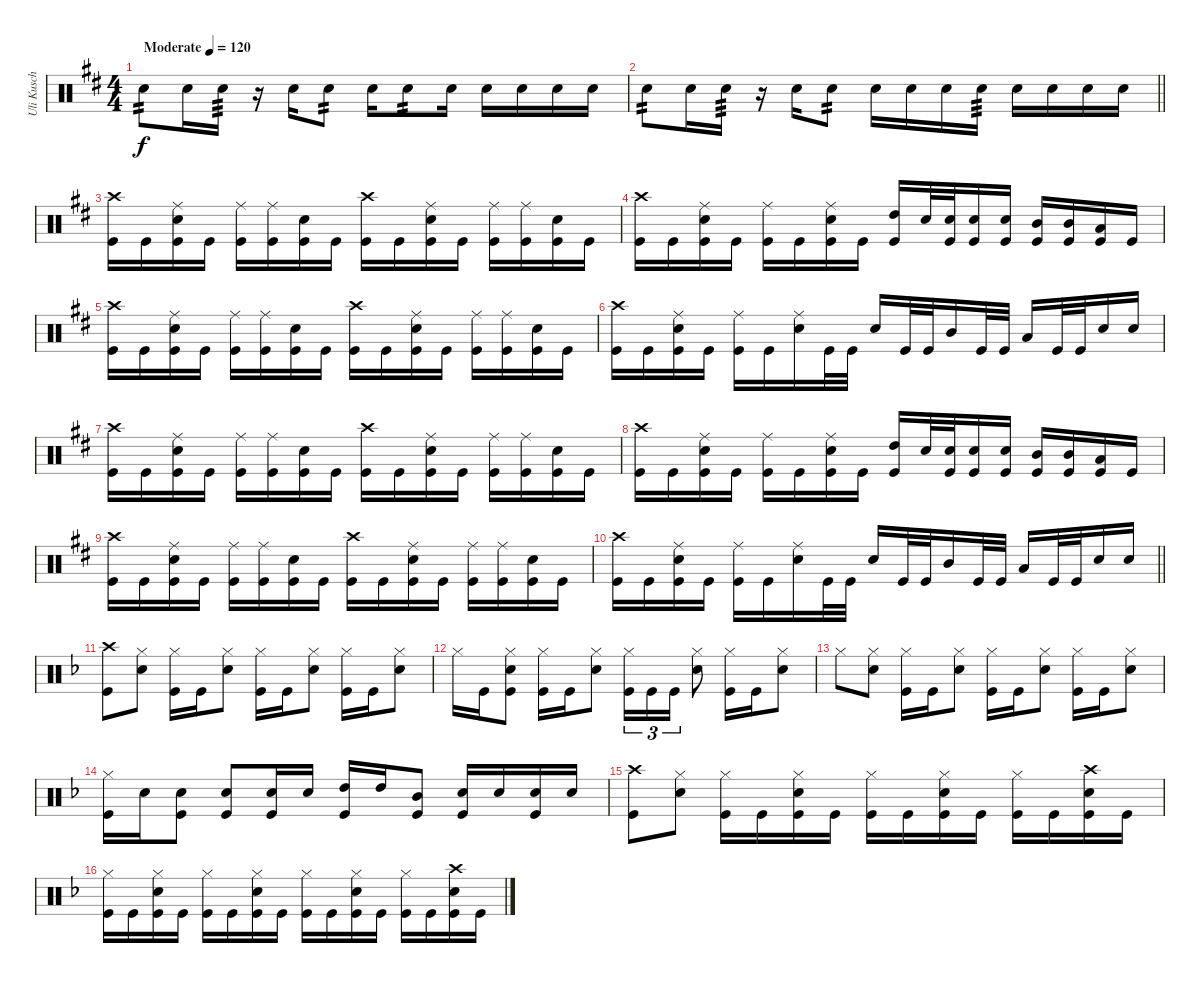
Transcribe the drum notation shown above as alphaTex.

\track ("Uli Kusch" "Uli Kusch") {instrument percussion}
\staff {score}
\articulation defaults
\ts (4 4)
\tempo (120 "Moderate")
\clef neutral
\ks d "Snare (hit) 2".8{tp 2 dy f} "Snare (hit) 2".16 "Snare (hit) 2".16{tp 3}
r.16 "Snare (hit) 2".16 "Snare (hit) 2".8{tp 2} "Snare (hit) 2".16 "Snare (hit) 2".8{tp 2} "Snare (hit) 2".16 "Snare (hit) 2".16 "Snare (hit) 2".16 "Snare (hit) 2".16 "Snare (hit) 2".16 |
\barLineRight lightlight "Snare (hit) 2".8{tp 2} "Snare (hit) 2".16 "Snare (hit) 2".16{tp 3}
r.16 "Snare (hit) 2".16 "Snare (hit) 2".8{tp 2} "Snare (hit) 2".16 "Snare (hit) 2".16 "Snare (hit) 2".16 "Snare (hit) 2".16{tp 3} "Snare (hit) 2".16 "Snare (hit) 2".16 "Snare (hit) 2".16 "Snare (hit) 2".16 |
("Crash high (hit)" "Kick (hit)").16 "Kick (hit)".16 ("Ride (middle)" "Snare (hit) 2" "Kick (hit)").16 "Kick (hit)".16 ("Ride (middle)" "Kick (hit)").16 ("Ride (middle)" "Kick (hit)").16 ("Snare (hit) 2" "Kick (hit)").16 "Kick (hit)".16 ("Crash high (hit)" "Kick (hit)").16 "Kick (hit)".16 ("Ride (middle)" "Snare (hit) 2" "Kick (hit)").16 "Kick (hit)".16 ("Ride (middle)" "Kick (hit)").16 ("Ride (middle)" "Kick (hit)").16 ("Snare (hit) 2" "Kick (hit)").16 "Kick (hit)".16 |
("Crash high (hit)" "Kick (hit)").16 "Kick (hit)".16 ("Ride (middle)" "Snare (hit) 2" "Kick (hit)").16 "Kick (hit)".16 ("Ride (middle)" "Kick (hit)").16 "Kick (hit)".16 ("Ride (middle)" "Snare (hit) 2" "Kick (hit)").16 "Kick (hit)".16 ("High Tom (hit)" "Kick (hit)").16 "Snare (hit) 2".32 ("Snare (hit) 2" "Kick (hit)").32 ("Snare (hit) 2" "Kick (hit)").16 ("Snare (hit) 2" "Kick (hit)").16 ("Mid Tom (hit)" "Kick (hit)").16 ("Mid Tom (hit)" "Kick (hit)").16 ("Low Tom (hit)" "Kick (hit)").16 "Kick (hit)".16 |
("Crash high (hit)" "Kick (hit)").16 "Kick (hit)".16 ("Ride (middle)" "Snare (hit) 2" "Kick (hit)").16 "Kick (hit)".16 ("Ride (middle)" "Kick (hit)").16 ("Ride (middle)" "Kick (hit)").16 ("Snare (hit) 2" "Kick (hit)").16 "Kick (hit)".16 ("Crash high (hit)" "Kick (hit)").16 "Kick (hit)".16 ("Ride (middle)" "Snare (hit) 2" "Kick (hit)").16 "Kick (hit)".16 ("Ride (middle)" "Kick (hit)").16 ("Ride (middle)" "Kick (hit)").16 ("Snare (hit) 2" "Kick (hit)").16 "Kick (hit)".16 |
("Crash high (hit)" "Kick (hit)").16 "Kick (hit)".16 ("Ride (middle)" "Snare (hit) 2" "Kick (hit)").16 "Kick (hit)".16 ("Ride (middle)" "Kick (hit)").16 "Kick (hit)".16 ("Ride (middle)" "Snare (hit) 2").16 "Kick (hit)".32 "Kick (hit)".32 "Snare (hit) 2".16 "Kick (hit)".32 "Kick (hit)".32 "Mid Tom (hit)".16 "Kick (hit)".32 "Kick (hit)".32 "Low Tom (hit)".16 "Kick (hit)".32 "Kick (hit)".32 "Snare (hit) 2".16 "Snare (hit) 2".16 |
("Crash high (hit)" "Kick (hit)").16 "Kick (hit)".16 ("Ride (middle)" "Snare (hit) 2" "Kick (hit)").16 "Kick (hit)".16 ("Ride (middle)" "Kick (hit)").16 ("Ride (middle)" "Kick (hit)").16 ("Snare (hit) 2" "Kick (hit)").16 "Kick (hit)".16 ("Crash high (hit)" "Kick (hit)").16 "Kick (hit)".16 ("Ride (middle)" "Snare (hit) 2" "Kick (hit)").16 "Kick (hit)".16 ("Ride (middle)" "Kick (hit)").16 ("Ride (middle)" "Kick (hit)").16 ("Snare (hit) 2" "Kick (hit)").16 "Kick (hit)".16 |
("Crash high (hit)" "Kick (hit)").16 "Kick (hit)".16 ("Ride (middle)" "Snare (hit) 2" "Kick (hit)").16 "Kick (hit)".16 ("Ride (middle)" "Kick (hit)").16 "Kick (hit)".16 ("Ride (middle)" "Snare (hit) 2" "Kick (hit)").16 "Kick (hit)".16 ("High Tom (hit)" "Kick (hit)").16 "Snare (hit) 2".32 ("Snare (hit) 2" "Kick (hit)").32 ("Snare (hit) 2" "Kick (hit)").16 ("Snare (hit) 2" "Kick (hit)").16 ("Mid Tom (hit)" "Kick (hit)").16 ("Mid Tom (hit)" "Kick (hit)").16 ("Low Tom (hit)" "Kick (hit)").16 "Kick (hit)".16 |
("Crash high (hit)" "Kick (hit)").16 "Kick (hit)".16 ("Ride (middle)" "Snare (hit) 2" "Kick (hit)").16 "Kick (hit)".16 ("Ride (middle)" "Kick (hit)").16 ("Ride (middle)" "Kick (hit)").16 ("Snare (hit) 2" "Kick (hit)").16 "Kick (hit)".16 ("Crash high (hit)" "Kick (hit)").16 "Kick (hit)".16 ("Ride (middle)" "Snare (hit) 2" "Kick (hit)").16 "Kick (hit)".16 ("Ride (middle)" "Kick (hit)").16 ("Ride (middle)" "Kick (hit)").16 ("Snare (hit) 2" "Kick (hit)").16 "Kick (hit)".16 |
\barLineRight lightlight
("Crash high (hit)" "Kick (hit)").16 "Kick (hit)".16 ("Ride (middle)" "Snare (hit) 2" "Kick (hit)").16 "Kick (hit)".16 ("Ride (middle)" "Kick (hit)").16 "Kick (hit)".16 ("Ride (middle)" "Snare (hit) 2").16 "Kick (hit)".32 "Kick (hit)".32 "Snare (hit) 2".16 "Kick (hit)".32 "Kick (hit)".32 "Mid Tom (hit)".16 "Kick (hit)".32 "Kick (hit)".32 "Low Tom (hit)".16 "Kick (hit)".32 "Kick (hit)".32 "Snare (hit) 2".16 "Snare (hit) 2".16 |
\ks dminor
("Crash high (hit)" "Kick (hit)").8 ("Hi-Hat (closed)" "Snare (hit) 2").8 ("Hi-Hat (closed)" "Kick (hit)").16 "Kick (hit)".16 ("Hi-Hat (closed)" "Snare (hit) 2").8 ("Hi-Hat (closed)" "Kick (hit)").16 "Kick (hit)".16 ("Hi-Hat (closed)" "Snare (hit) 2").8 ("Hi-Hat (closed)" "Kick (hit)").16 "Kick (hit)".16 ("Hi-Hat (closed)" "Snare (hit) 2").8 |
"Hi-Hat (closed)".16 "Kick (hit)".16 ("Hi-Hat (closed)" "Snare (hit) 2" "Kick (hit)").8 ("Hi-Hat (closed)" "Kick (hit)").16 "Kick (hit)".16 ("Hi-Hat (closed)" "Snare (hit) 2").8 ("Hi-Hat (closed)" "Kick (hit)").16{tu (3 2)} "Kick (hit)".16{tu (3 2)} "Kick (hit)".16{tu (3 2)} ("Hi-Hat (closed)" "Snare (hit) 2").8 ("Hi-Hat (closed)" "Kick (hit)").16 "Kick (hit)".16 ("Hi-Hat (closed)" "Snare (hit) 2").8 |
"Hi-Hat (closed)".8 ("Hi-Hat (closed)" "Snare (hit) 2").8 ("Hi-Hat (closed)" "Kick (hit)").16 "Kick (hit)".16 ("Hi-Hat (closed)" "Snare (hit) 2").8 ("Hi-Hat (closed)" "Kick (hit)").16 "Kick (hit)".16 ("Hi-Hat (closed)" "Snare (hit) 2").8 ("Hi-Hat (closed)" "Kick (hit)").16 "Kick (hit)".16 ("Hi-Hat (closed)" "Snare (hit) 2").8 |
("Hi-Hat (closed)" "Kick (hit)").16 "Snare (hit) 2".16 ("Snare (hit) 2" "Kick (hit)").8 ("Snare (hit) 2" "Kick (hit)").8 ("Snare (hit) 2" "Kick (hit)").16 "Snare (hit) 2".16 ("High Tom (hit)" "Kick (hit)").16 "High Tom (hit)".16 ("Mid Tom (hit)" "Kick (hit)").8 ("Snare (hit) 2" "Kick (hit)").16 "Snare (hit) 2".16 ("Snare (hit) 2" "Kick (hit)").16 "Snare (hit) 2".16 |
("Crash high (hit)" "Kick (hit)").8 ("Hi-Hat (closed)" "Snare (hit) 2").8 ("Hi-Hat (closed)" "Kick (hit)").16 "Kick (hit)".16 ("Hi-Hat (closed)" "Snare (hit) 2" "Kick (hit)").16 "Kick (hit)".16 ("Hi-Hat (closed)" "Kick (hit)").16 "Kick (hit)".16 ("Hi-Hat (closed)" "Snare (hit) 2" "Kick (hit)").16 "Kick (hit)".16 ("Hi-Hat (closed)" "Kick (hit)").16 "Kick (hit)".16 ("Crash high (hit)" "Snare (hit) 2" "Kick (hit)").16 "Kick (hit)".16 |
("Hi-Hat (closed)" "Kick (hit)").16 "Kick (hit)".16 ("Hi-Hat (closed)" "Snare (hit) 2" "Kick (hit)").16 "Kick (hit)".16 ("Hi-Hat (closed)" "Kick (hit)").16 "Kick (hit)".16 ("Hi-Hat (closed)" "Snare (hit) 2" "Kick (hit)").16 "Kick (hit)".16 ("Hi-Hat (closed)" "Kick (hit)").16 "Kick (hit)".16 ("Hi-Hat (closed)" "Snare (hit) 2" "Kick (hit)").16 "Kick (hit)".16 ("Hi-Hat (closed)" "Kick (hit)").16 "Kick (hit)".16 ("Crash high (hit)" "Snare (hit) 2" "Kick (hit)").16 "Kick (hit)".16
